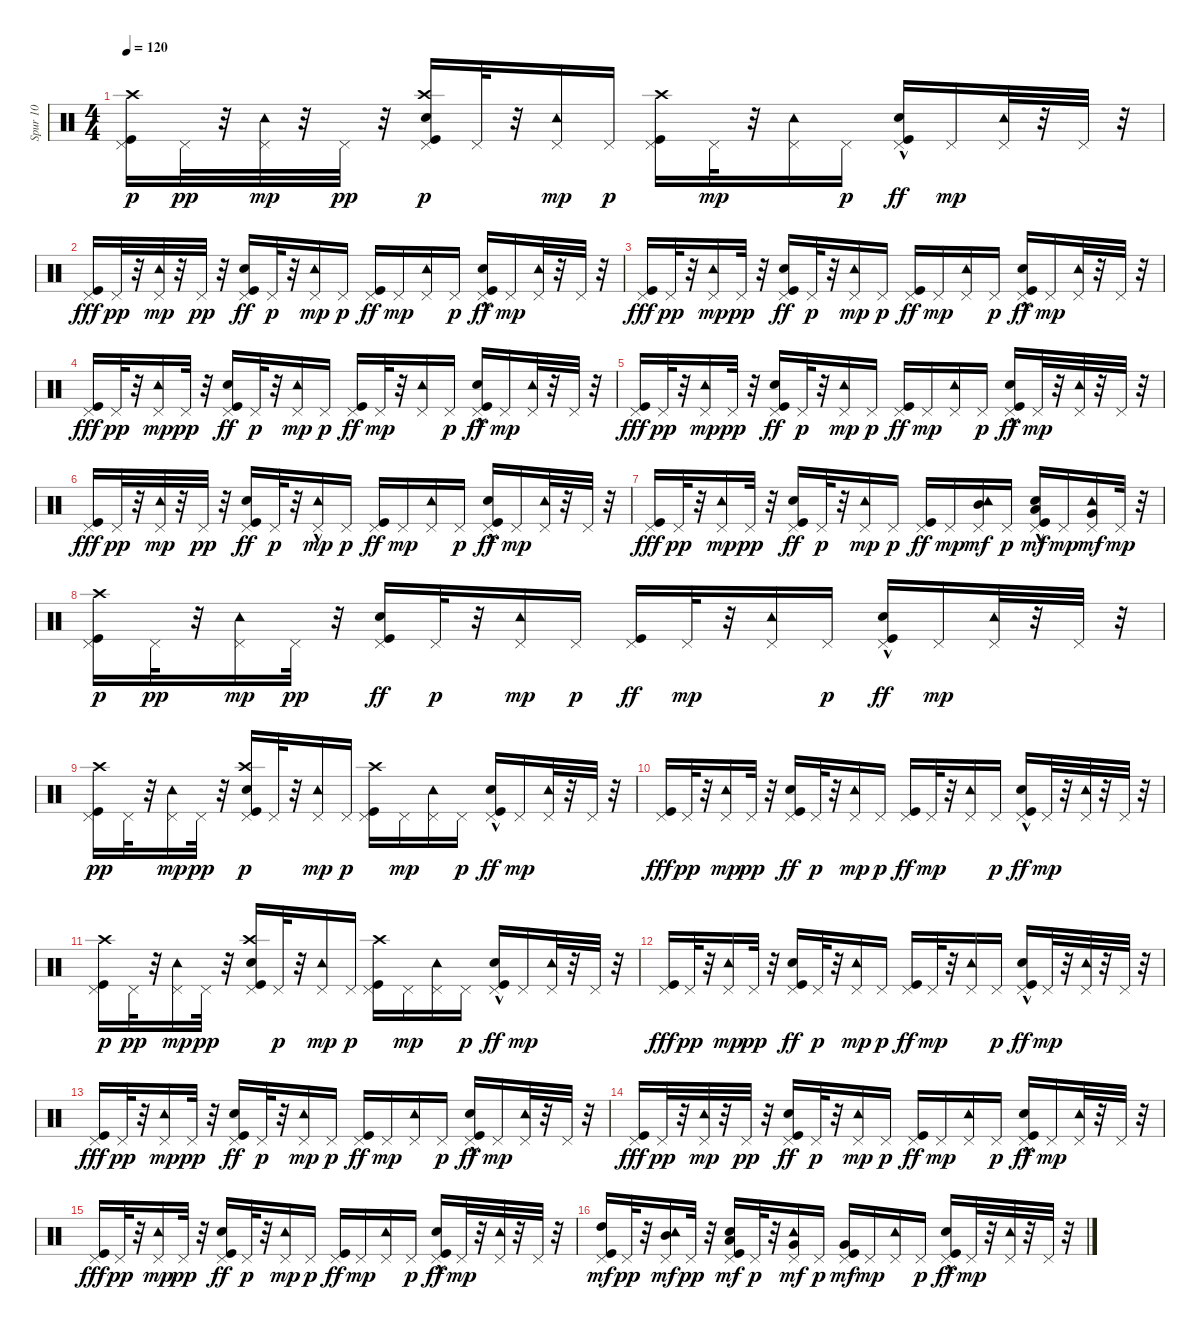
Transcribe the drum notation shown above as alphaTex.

\track ("Spur 10" "Spur 10") {instrument percussion}
\staff {score}
\articulation defaults
\ts (4 4)
\tempo 120
\clef neutral
\ks c
("Pedal Hi-Hat (hit)" "Kick (hit)" "Crash high (hit)").16{dy p} "Pedal Hi-Hat (hit)".32{dy pp} r.32 ("Pedal Hi-Hat (hit)" "Tambourine (hit)").32{dy mp} r.32 "Pedal Hi-Hat (hit)".32{dy pp} r.32 ("Kick (hit)" "Pedal Hi-Hat (hit)" "Snare (hit) 2" "Crash high (hit)").16{dy p} "Pedal Hi-Hat (hit)".32 r.32 ("Pedal Hi-Hat (hit)" "Tambourine (hit)").16{dy mp} "Pedal Hi-Hat (hit)".16{dy p} ("Kick (hit)" "Pedal Hi-Hat (hit)" "Crash high (hit)").16 "Pedal Hi-Hat (hit)".32{dy mp} r.32 ("Pedal Hi-Hat (hit)" "Tambourine (hit)").16 "Pedal Hi-Hat (hit)".16{dy p} ("Kick (hit)"{hac} "Pedal Hi-Hat (hit)" "Snare (hit) 2"{hac}).16{dy ff} "Pedal Hi-Hat (hit)".16{dy mp} ("Pedal Hi-Hat (hit)" "Tambourine (hit)").32 r.32 "Pedal Hi-Hat (hit)".32 r.32 |
("Pedal Hi-Hat (hit)" "Kick (hit)").16{dy fff} "Pedal Hi-Hat (hit)".32{dy pp} r.32 ("Pedal Hi-Hat (hit)" "Tambourine (hit)").32{dy mp} r.32 "Pedal Hi-Hat (hit)".32{dy pp} r.32 ("Kick (hit)" "Pedal Hi-Hat (hit)" "Snare (hit) 2").16{dy ff} "Pedal Hi-Hat (hit)".32{dy p} r.32 ("Pedal Hi-Hat (hit)" "Tambourine (hit)").16{dy mp} "Pedal Hi-Hat (hit)".16{dy p} ("Kick (hit)" "Pedal Hi-Hat (hit)").16{dy ff} "Pedal Hi-Hat (hit)".16{dy mp} ("Pedal Hi-Hat (hit)" "Tambourine (hit)").16 "Pedal Hi-Hat (hit)".16{dy p} ("Kick (hit)"{hac} "Pedal Hi-Hat (hit)" "Snare (hit) 2"{hac}).16{dy ff} "Pedal Hi-Hat (hit)".16{dy mp} ("Pedal Hi-Hat (hit)" "Tambourine (hit)").32 r.32 "Pedal Hi-Hat (hit)".32 r.32 |
("Pedal Hi-Hat (hit)" "Kick (hit)").16{dy fff} "Pedal Hi-Hat (hit)".32{dy pp} r.32 ("Pedal Hi-Hat (hit)" "Tambourine (hit)").16{dy mp} "Pedal Hi-Hat (hit)".32{dy pp} r.32 ("Kick (hit)" "Pedal Hi-Hat (hit)" "Snare (hit) 2").16{dy ff} "Pedal Hi-Hat (hit)".32{dy p} r.32 ("Pedal Hi-Hat (hit)" "Tambourine (hit)").16{dy mp} "Pedal Hi-Hat (hit)".16{dy p} ("Kick (hit)" "Pedal Hi-Hat (hit)").16{dy ff} "Pedal Hi-Hat (hit)".16{dy mp} ("Pedal Hi-Hat (hit)" "Tambourine (hit)").16 "Pedal Hi-Hat (hit)".16{dy p} ("Kick (hit)"{hac} "Pedal Hi-Hat (hit)" "Snare (hit) 2"{hac}).16{dy ff} "Pedal Hi-Hat (hit)".16{dy mp} ("Pedal Hi-Hat (hit)" "Tambourine (hit)").32 r.32 "Pedal Hi-Hat (hit)".32 r.32 |
("Pedal Hi-Hat (hit)" "Kick (hit)").16{dy fff} "Pedal Hi-Hat (hit)".32{dy pp} r.32 ("Pedal Hi-Hat (hit)" "Tambourine (hit)").16{dy mp} "Pedal Hi-Hat (hit)".32{dy pp} r.32 ("Kick (hit)" "Pedal Hi-Hat (hit)" "Snare (hit) 2").16{dy ff} "Pedal Hi-Hat (hit)".32{dy p} r.32 ("Pedal Hi-Hat (hit)" "Tambourine (hit)").16{dy mp} "Pedal Hi-Hat (hit)".16{dy p} ("Kick (hit)" "Pedal Hi-Hat (hit)").16{dy ff} "Pedal Hi-Hat (hit)".32{dy mp} r.32 ("Pedal Hi-Hat (hit)" "Tambourine (hit)").16 "Pedal Hi-Hat (hit)".16{dy p} ("Kick (hit)"{hac} "Pedal Hi-Hat (hit)" "Snare (hit) 2"{hac}).16{dy ff} "Pedal Hi-Hat (hit)".16{dy mp} ("Pedal Hi-Hat (hit)" "Tambourine (hit)").32 r.32 "Pedal Hi-Hat (hit)".32 r.32 |
("Pedal Hi-Hat (hit)" "Kick (hit)").16{dy fff} "Pedal Hi-Hat (hit)".32{dy pp} r.32 ("Pedal Hi-Hat (hit)" "Tambourine (hit)").16{dy mp} "Pedal Hi-Hat (hit)".32{dy pp} r.32 ("Kick (hit)" "Pedal Hi-Hat (hit)" "Snare (hit) 2").16{dy ff} "Pedal Hi-Hat (hit)".32{dy p} r.32 ("Pedal Hi-Hat (hit)" "Tambourine (hit)").16{dy mp} "Pedal Hi-Hat (hit)".16{dy p} ("Kick (hit)" "Pedal Hi-Hat (hit)").16{dy ff} "Pedal Hi-Hat (hit)".16{dy mp} ("Pedal Hi-Hat (hit)" "Tambourine (hit)").16 "Pedal Hi-Hat (hit)".16{dy p} ("Kick (hit)"{hac} "Pedal Hi-Hat (hit)" "Snare (hit) 2"{hac}).16{dy ff} "Pedal Hi-Hat (hit)".32{dy mp} r.32 ("Pedal Hi-Hat (hit)" "Tambourine (hit)").32 r.32 "Pedal Hi-Hat (hit)".32 r.32 |
("Pedal Hi-Hat (hit)" "Kick (hit)").16{dy fff} "Pedal Hi-Hat (hit)".32{dy pp} r.32 ("Pedal Hi-Hat (hit)" "Tambourine (hit)").32{dy mp} r.32 "Pedal Hi-Hat (hit)".32{dy pp} r.32 ("Kick (hit)" "Pedal Hi-Hat (hit)" "Snare (hit) 2").16{dy ff} "Pedal Hi-Hat (hit)".32{dy p} r.32 ("Pedal Hi-Hat (hit)" "Tambourine (hit)"{hac}).16{dy mp} "Pedal Hi-Hat (hit)".16{dy p} ("Kick (hit)" "Pedal Hi-Hat (hit)").16{dy ff} "Pedal Hi-Hat (hit)".16{dy mp} ("Pedal Hi-Hat (hit)" "Tambourine (hit)").16 "Pedal Hi-Hat (hit)".16{dy p} ("Kick (hit)"{hac} "Pedal Hi-Hat (hit)" "Snare (hit) 2"{hac}).16{dy ff} "Pedal Hi-Hat (hit)".16{dy mp} ("Pedal Hi-Hat (hit)" "Tambourine (hit)").32 r.32 "Pedal Hi-Hat (hit)".32 r.32 |
("Pedal Hi-Hat (hit)" "Kick (hit)").16{dy fff} "Pedal Hi-Hat (hit)".32{dy pp} r.32 ("Pedal Hi-Hat (hit)" "Tambourine (hit)").16{dy mp} "Pedal Hi-Hat (hit)".32{dy pp} r.32 ("Kick (hit)" "Pedal Hi-Hat (hit)" "Snare (hit) 2").16{dy ff} "Pedal Hi-Hat (hit)".32{dy p} r.32 ("Pedal Hi-Hat (hit)" "Tambourine (hit)").16{dy mp} "Pedal Hi-Hat (hit)".16{dy p} ("Kick (hit)" "Pedal Hi-Hat (hit)").16{dy ff} "Pedal Hi-Hat (hit)".16{dy mp} ("Pedal Hi-Hat (hit)" "Tambourine (hit)" "Mid Tom (hit)").16{dy mf} "Pedal Hi-Hat (hit)".16{dy p} ("Kick (hit)"{hac} "Pedal Hi-Hat (hit)" "Snare (hit) 2"{hac} "Low Tom (hit)").16{dy mf} "Pedal Hi-Hat (hit)".16{dy mp} ("Pedal Hi-Hat (hit)" "Tambourine (hit)" "Very Low Tom (hit)").16{dy mf} "Pedal Hi-Hat (hit)".32{dy mp} r.32 |
("Pedal Hi-Hat (hit)" "Kick (hit)" "Crash high (hit)").16{dy p} "Pedal Hi-Hat (hit)".32{dy pp} r.32 ("Pedal Hi-Hat (hit)" "Tambourine (hit)").16{dy mp} "Pedal Hi-Hat (hit)".32{dy pp} r.32 ("Kick (hit)" "Pedal Hi-Hat (hit)" "Snare (hit) 2").16{dy ff} "Pedal Hi-Hat (hit)".32{dy p} r.32 ("Pedal Hi-Hat (hit)" "Tambourine (hit)").16{dy mp} "Pedal Hi-Hat (hit)".16{dy p} ("Kick (hit)" "Pedal Hi-Hat (hit)").16{dy ff} "Pedal Hi-Hat (hit)".32{dy mp} r.32 ("Pedal Hi-Hat (hit)" "Tambourine (hit)").16 "Pedal Hi-Hat (hit)".16{dy p} ("Kick (hit)"{hac} "Pedal Hi-Hat (hit)" "Snare (hit) 2"{hac}).16{dy ff} "Pedal Hi-Hat (hit)".16{dy mp} ("Pedal Hi-Hat (hit)" "Tambourine (hit)").32 r.32 "Pedal Hi-Hat (hit)".32 r.32 |
("Pedal Hi-Hat (hit)" "Kick (hit)" "Crash high (hit)").16{dy pp} "Pedal Hi-Hat (hit)".32 r.32 ("Pedal Hi-Hat (hit)" "Tambourine (hit)").16{dy mp} "Pedal Hi-Hat (hit)".32{dy pp} r.32 ("Kick (hit)" "Pedal Hi-Hat (hit)" "Snare (hit) 2" "Crash high (hit)").16{dy p} "Pedal Hi-Hat (hit)".32 r.32 ("Pedal Hi-Hat (hit)" "Tambourine (hit)").16{dy mp} "Pedal Hi-Hat (hit)".16{dy p} ("Kick (hit)" "Pedal Hi-Hat (hit)" "Crash high (hit)").16 "Pedal Hi-Hat (hit)".16{dy mp} ("Pedal Hi-Hat (hit)" "Tambourine (hit)").16 "Pedal Hi-Hat (hit)".16{dy p} ("Kick (hit)"{hac} "Pedal Hi-Hat (hit)" "Snare (hit) 2"{hac}).16{dy ff} "Pedal Hi-Hat (hit)".16{dy mp} ("Pedal Hi-Hat (hit)" "Tambourine (hit)").32 r.32 "Pedal Hi-Hat (hit)".32 r.32 |
("Pedal Hi-Hat (hit)" "Kick (hit)").16{dy fff} "Pedal Hi-Hat (hit)".32{dy pp} r.32 ("Pedal Hi-Hat (hit)" "Tambourine (hit)").16{dy mp} "Pedal Hi-Hat (hit)".32{dy pp} r.32 ("Kick (hit)" "Pedal Hi-Hat (hit)" "Snare (hit) 2").16{dy ff} "Pedal Hi-Hat (hit)".32{dy p} r.32 ("Pedal Hi-Hat (hit)" "Tambourine (hit)").16{dy mp} "Pedal Hi-Hat (hit)".16{dy p} ("Kick (hit)" "Pedal Hi-Hat (hit)").16{dy ff} "Pedal Hi-Hat (hit)".32{dy mp} r.32 ("Pedal Hi-Hat (hit)" "Tambourine (hit)").16 "Pedal Hi-Hat (hit)".16{dy p} ("Kick (hit)"{hac} "Pedal Hi-Hat (hit)" "Snare (hit) 2"{hac}).16{dy ff} "Pedal Hi-Hat (hit)".32{dy mp} r.32 ("Pedal Hi-Hat (hit)" "Tambourine (hit)").32 r.32 "Pedal Hi-Hat (hit)".32 r.32 |
("Pedal Hi-Hat (hit)" "Kick (hit)" "Crash high (hit)").16{dy p} "Pedal Hi-Hat (hit)".32{dy pp} r.32 ("Pedal Hi-Hat (hit)" "Tambourine (hit)").16{dy mp} "Pedal Hi-Hat (hit)".32{dy pp} r.32 ("Kick (hit)" "Pedal Hi-Hat (hit)" "Snare (hit) 2" "Crash high (hit)").16 "Pedal Hi-Hat (hit)".32{dy p} r.32 ("Pedal Hi-Hat (hit)" "Tambourine (hit)").16{dy mp} "Pedal Hi-Hat (hit)".16{dy p} ("Kick (hit)" "Pedal Hi-Hat (hit)" "Crash high (hit)").16 "Pedal Hi-Hat (hit)".16{dy mp} ("Pedal Hi-Hat (hit)" "Tambourine (hit)").16 "Pedal Hi-Hat (hit)".16{dy p} ("Kick (hit)"{hac} "Pedal Hi-Hat (hit)" "Snare (hit) 2"{hac}).16{dy ff} "Pedal Hi-Hat (hit)".16{dy mp} ("Pedal Hi-Hat (hit)" "Tambourine (hit)").32 r.32 "Pedal Hi-Hat (hit)".32 r.32 |
("Pedal Hi-Hat (hit)" "Kick (hit)").16{dy fff} "Pedal Hi-Hat (hit)".32{dy pp} r.32 ("Pedal Hi-Hat (hit)" "Tambourine (hit)").16{dy mp} "Pedal Hi-Hat (hit)".32{dy pp} r.32 ("Kick (hit)" "Pedal Hi-Hat (hit)" "Snare (hit) 2").16{dy ff} "Pedal Hi-Hat (hit)".32{dy p} r.32 ("Pedal Hi-Hat (hit)" "Tambourine (hit)").16{dy mp} "Pedal Hi-Hat (hit)".16{dy p} ("Kick (hit)" "Pedal Hi-Hat (hit)").16{dy ff} "Pedal Hi-Hat (hit)".32{dy mp} r.32 ("Pedal Hi-Hat (hit)" "Tambourine (hit)").16 "Pedal Hi-Hat (hit)".16{dy p} ("Kick (hit)"{hac} "Pedal Hi-Hat (hit)" "Snare (hit) 2"{hac}).16{dy ff} "Pedal Hi-Hat (hit)".32{dy mp} r.32 ("Pedal Hi-Hat (hit)" "Tambourine (hit)").32 r.32 "Pedal Hi-Hat (hit)".32 r.32 |
("Pedal Hi-Hat (hit)" "Kick (hit)").16{dy fff} "Pedal Hi-Hat (hit)".32{dy pp} r.32 ("Pedal Hi-Hat (hit)" "Tambourine (hit)").16{dy mp} "Pedal Hi-Hat (hit)".32{dy pp} r.32 ("Kick (hit)" "Pedal Hi-Hat (hit)" "Snare (hit) 2").16{dy ff} "Pedal Hi-Hat (hit)".32{dy p} r.32 ("Pedal Hi-Hat (hit)" "Tambourine (hit)").16{dy mp} "Pedal Hi-Hat (hit)".16{dy p} ("Kick (hit)" "Pedal Hi-Hat (hit)").16{dy ff} "Pedal Hi-Hat (hit)".16{dy mp} ("Pedal Hi-Hat (hit)" "Tambourine (hit)").16 "Pedal Hi-Hat (hit)".16{dy p} ("Kick (hit)"{hac} "Pedal Hi-Hat (hit)" "Snare (hit) 2"{hac}).16{dy ff} "Pedal Hi-Hat (hit)".16{dy mp} ("Pedal Hi-Hat (hit)" "Tambourine (hit)").32 r.32 "Pedal Hi-Hat (hit)".32 r.32 |
("Pedal Hi-Hat (hit)" "Kick (hit)").16{dy fff} "Pedal Hi-Hat (hit)".32{dy pp} r.32 ("Pedal Hi-Hat (hit)" "Tambourine (hit)").32{dy mp} r.32 "Pedal Hi-Hat (hit)".32{dy pp} r.32 ("Kick (hit)" "Pedal Hi-Hat (hit)" "Snare (hit) 2").16{dy ff} "Pedal Hi-Hat (hit)".32{dy p} r.32 ("Pedal Hi-Hat (hit)" "Tambourine (hit)").16{dy mp} "Pedal Hi-Hat (hit)".16{dy p} ("Kick (hit)" "Pedal Hi-Hat (hit)").16{dy ff} "Pedal Hi-Hat (hit)".16{dy mp} ("Pedal Hi-Hat (hit)" "Tambourine (hit)").16 "Pedal Hi-Hat (hit)".16{dy p} ("Kick (hit)"{hac} "Pedal Hi-Hat (hit)" "Snare (hit) 2"{hac}).16{dy ff} "Pedal Hi-Hat (hit)".16{dy mp} ("Pedal Hi-Hat (hit)" "Tambourine (hit)").32 r.32 "Pedal Hi-Hat (hit)".32 r.32 |
("Pedal Hi-Hat (hit)" "Kick (hit)").16{dy fff} "Pedal Hi-Hat (hit)".32{dy pp} r.32 ("Pedal Hi-Hat (hit)" "Tambourine (hit)").16{dy mp} "Pedal Hi-Hat (hit)".32{dy pp} r.32 ("Kick (hit)" "Pedal Hi-Hat (hit)" "Snare (hit) 2").16{dy ff} "Pedal Hi-Hat (hit)".32{dy p} r.32 ("Pedal Hi-Hat (hit)" "Tambourine (hit)").16{dy mp} "Pedal Hi-Hat (hit)".16{dy p} ("Kick (hit)" "Pedal Hi-Hat (hit)").16{dy ff} "Pedal Hi-Hat (hit)".16{dy mp} ("Pedal Hi-Hat (hit)" "Tambourine (hit)").16 "Pedal Hi-Hat (hit)".16{dy p} ("Kick (hit)"{hac} "Pedal Hi-Hat (hit)" "Snare (hit) 2"{hac}).16{dy ff} "Pedal Hi-Hat (hit)".32{dy mp} r.32 ("Pedal Hi-Hat (hit)" "Tambourine (hit)").32 r.32 "Pedal Hi-Hat (hit)".32 r.32 |
("Pedal Hi-Hat (hit)" "Kick (hit)" "High Tom (hit)").16{dy mf} "Pedal Hi-Hat (hit)".32{dy pp} r.32 ("Pedal Hi-Hat (hit)" "Tambourine (hit)" "Mid Tom (hit)").16{dy mf} "Pedal Hi-Hat (hit)".32{dy pp} r.32 ("Kick (hit)" "Pedal Hi-Hat (hit)" "Snare (hit) 2" "Low Tom (hit)").16{dy mf} "Pedal Hi-Hat (hit)".32{dy p} r.32 ("Pedal Hi-Hat (hit)" "Tambourine (hit)" "Very Low Tom (hit)").16{dy mf} "Pedal Hi-Hat (hit)".16{dy p} ("Kick (hit)" "Pedal Hi-Hat (hit)" "Very Low Tom (hit)").16{dy mf} "Pedal Hi-Hat (hit)".16{dy mp} ("Pedal Hi-Hat (hit)" "Tambourine (hit)").16 "Pedal Hi-Hat (hit)".16{dy p} ("Kick (hit)"{hac} "Pedal Hi-Hat (hit)" "Snare (hit) 2"{hac}).16{dy ff} "Pedal Hi-Hat (hit)".32{dy mp} r.32 ("Pedal Hi-Hat (hit)" "Tambourine (hit)").32 r.32 "Pedal Hi-Hat (hit)".32 r.32
